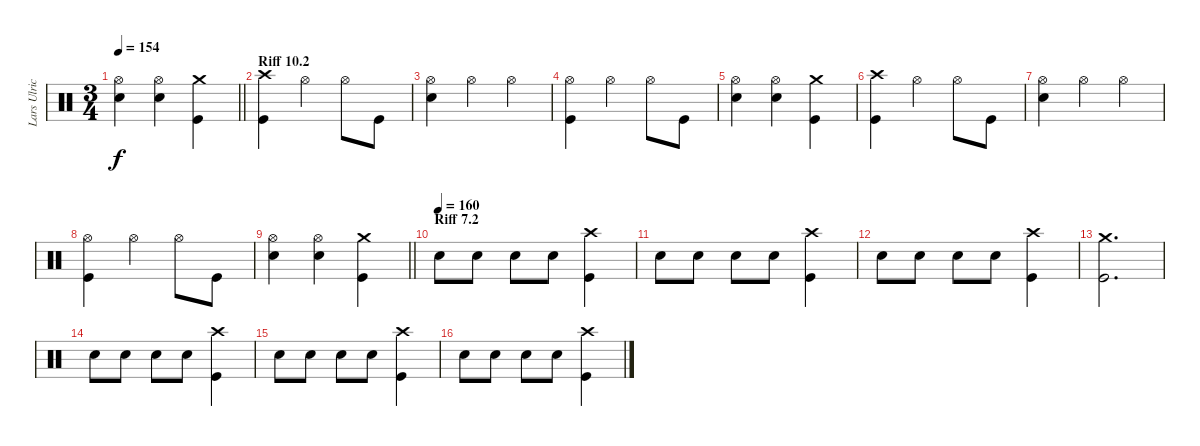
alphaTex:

\track ("Lars Ulrich" "Lars Ulric") {instrument percussion}
\staff {score}
\articulation defaults
\ts (3 4)
\tempo 154
\clef neutral
\barLineRight lightlight
\ks c
("Hi-Hat (open)" "Snare (hit) 2").4{dy f} ("Hi-Hat (open)" "Snare (hit) 2").4 ("Crash medium (hit)" "Kick (hit)").4 |
\section ("" "Riff 10.2")
("Crash high (hit)" "Kick (hit)").4 "Hi-Hat (open)".4 "Hi-Hat (open)".8 "Kick (hit)".8 |
("Hi-Hat (open)" "Snare (hit) 2").4 "Hi-Hat (open)".4 "Hi-Hat (open)".4 |
("Hi-Hat (open)" "Kick (hit)").4 "Hi-Hat (open)".4 "Hi-Hat (open)".8 "Kick (hit)".8 |
("Hi-Hat (open)" "Snare (hit) 2").4 ("Hi-Hat (open)" "Snare (hit) 2").4 ("Crash medium (hit)" "Kick (hit)").4 |
("Crash high (hit)" "Kick (hit)").4 "Hi-Hat (open)".4 "Hi-Hat (open)".8 "Kick (hit)".8 |
("Hi-Hat (open)" "Snare (hit) 2").4 "Hi-Hat (open)".4 "Hi-Hat (open)".4 |
("Hi-Hat (open)" "Kick (hit)").4 "Hi-Hat (open)".4 "Hi-Hat (open)".8 "Kick (hit)".8 |
\barLineRight lightlight
("Hi-Hat (open)" "Snare (hit) 2").4 ("Hi-Hat (open)" "Snare (hit) 2").4 ("Crash medium (hit)" "Kick (hit)").4 |
\section ("" "Riff 7.2")
\tempo (160)
"Snare (hit) 2".8 "Snare (hit) 2".8 "Snare (hit) 2".8 "Snare (hit) 2".8 ("Crash high (hit)" "Kick (hit)").4 |
"Snare (hit) 2".8 "Snare (hit) 2".8 "Snare (hit) 2".8 "Snare (hit) 2".8 ("Crash high (hit)" "Kick (hit)").4 |
"Snare (hit) 2".8 "Snare (hit) 2".8 "Snare (hit) 2".8 "Snare (hit) 2".8 ("Crash high (hit)" "Kick (hit)").4 |
("Crash medium (hit)" "Kick (hit)").2{d} |
"Snare (hit) 2".8 "Snare (hit) 2".8 "Snare (hit) 2".8 "Snare (hit) 2".8 ("Crash high (hit)" "Kick (hit)").4 |
"Snare (hit) 2".8 "Snare (hit) 2".8 "Snare (hit) 2".8 "Snare (hit) 2".8 ("Crash high (hit)" "Kick (hit)").4 |
"Snare (hit) 2".8 "Snare (hit) 2".8 "Snare (hit) 2".8 "Snare (hit) 2".8 ("Crash high (hit)" "Kick (hit)").4
